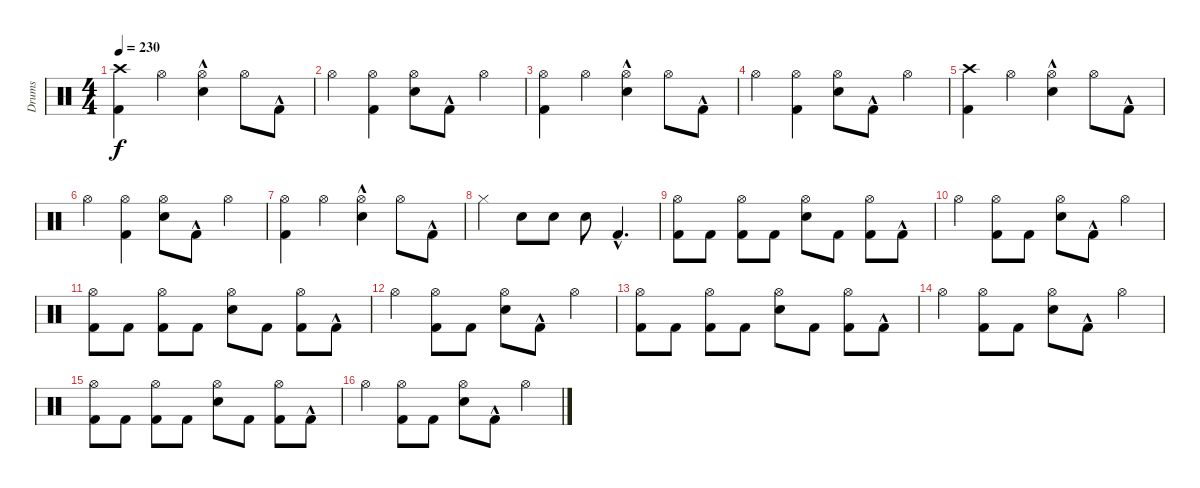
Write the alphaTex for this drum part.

\track ("Drums" "Drums") {instrument percussion}
\staff {score}
\articulation defaults
\ts (4 4)
\tempo 230
\clef neutral
\ks c
("Crash high (hit)" "Kick (hit) 2").4{dy f} "Hi-Hat (open)".4 ("Hi-Hat (open)" "Electric Snare (hit)"{hac}).4 "Hi-Hat (open)".8 "Kick (hit) 2"{hac}.8 |
"Hi-Hat (open)".4 ("Hi-Hat (open)" "Kick (hit) 2").4 ("Hi-Hat (open)" "Electric Snare (hit)").8 "Kick (hit) 2"{hac}.8 "Hi-Hat (open)".4 |
("Hi-Hat (open)" "Kick (hit) 2").4 "Hi-Hat (open)".4 ("Hi-Hat (open)" "Electric Snare (hit)"{hac}).4 "Hi-Hat (open)".8 "Kick (hit) 2"{hac}.8 |
"Hi-Hat (open)".4 ("Hi-Hat (open)" "Kick (hit) 2").4 ("Hi-Hat (open)" "Electric Snare (hit)").8 "Kick (hit) 2"{hac}.8 "Hi-Hat (open)".4 |
("Crash high (hit)" "Kick (hit) 2").4 "Hi-Hat (open)".4 ("Hi-Hat (open)" "Electric Snare (hit)"{hac}).4 "Hi-Hat (open)".8 "Kick (hit) 2"{hac}.8 |
"Hi-Hat (open)".4 ("Hi-Hat (open)" "Kick (hit) 2").4 ("Hi-Hat (open)" "Electric Snare (hit)").8 "Kick (hit) 2"{hac}.8 "Hi-Hat (open)".4 |
("Hi-Hat (open)" "Kick (hit) 2").4 "Hi-Hat (open)".4 ("Hi-Hat (open)" "Electric Snare (hit)"{hac}).4 "Hi-Hat (open)".8 "Kick (hit) 2"{hac}.8 |
"Hi-Hat (closed)".4 "Electric Snare (hit)".8 "Electric Snare (hit)".8 "Electric Snare (hit)".8 "Kick (hit) 2"{hac}.4{d} |
("Kick (hit) 2" "Hi-Hat (open)").8 "Kick (hit) 2".8 ("Hi-Hat (open)" "Kick (hit) 2").8 "Kick (hit) 2".8 ("Hi-Hat (open)" "Electric Snare (hit)").8 "Kick (hit) 2".8 ("Hi-Hat (open)" "Kick (hit) 2").8 "Kick (hit) 2"{hac}.8 |
"Hi-Hat (open)".4 ("Hi-Hat (open)" "Kick (hit) 2").8 "Kick (hit) 2".8 ("Hi-Hat (open)" "Electric Snare (hit)").8 "Kick (hit) 2"{hac}.8 "Hi-Hat (open)".4 |
("Hi-Hat (open)" "Kick (hit) 2").8 "Kick (hit) 2".8 ("Hi-Hat (open)" "Kick (hit) 2").8 "Kick (hit) 2".8 ("Hi-Hat (open)" "Electric Snare (hit)").8 "Kick (hit) 2".8 ("Hi-Hat (open)" "Kick (hit) 2").8 "Kick (hit) 2"{hac}.8 |
"Hi-Hat (open)".4 ("Hi-Hat (open)" "Kick (hit) 2").8 "Kick (hit) 2".8 ("Hi-Hat (open)" "Electric Snare (hit)").8 "Kick (hit) 2"{hac}.8 "Hi-Hat (open)".4 |
("Kick (hit) 2" "Hi-Hat (open)").8 "Kick (hit) 2".8 ("Hi-Hat (open)" "Kick (hit) 2").8 "Kick (hit) 2".8 ("Hi-Hat (open)" "Electric Snare (hit)").8 "Kick (hit) 2".8 ("Hi-Hat (open)" "Kick (hit) 2").8 "Kick (hit) 2"{hac}.8 |
"Hi-Hat (open)".4 ("Hi-Hat (open)" "Kick (hit) 2").8 "Kick (hit) 2".8 ("Hi-Hat (open)" "Electric Snare (hit)").8 "Kick (hit) 2"{hac}.8 "Hi-Hat (open)".4 |
("Hi-Hat (open)" "Kick (hit) 2").8 "Kick (hit) 2".8 ("Hi-Hat (open)" "Kick (hit) 2").8 "Kick (hit) 2".8 ("Hi-Hat (open)" "Electric Snare (hit)").8 "Kick (hit) 2".8 ("Hi-Hat (open)" "Kick (hit) 2").8 "Kick (hit) 2"{hac}.8 |
"Hi-Hat (open)".4 ("Hi-Hat (open)" "Kick (hit) 2").8 "Kick (hit) 2".8 ("Hi-Hat (open)" "Electric Snare (hit)").8 "Kick (hit) 2"{hac}.8 "Hi-Hat (open)".4
